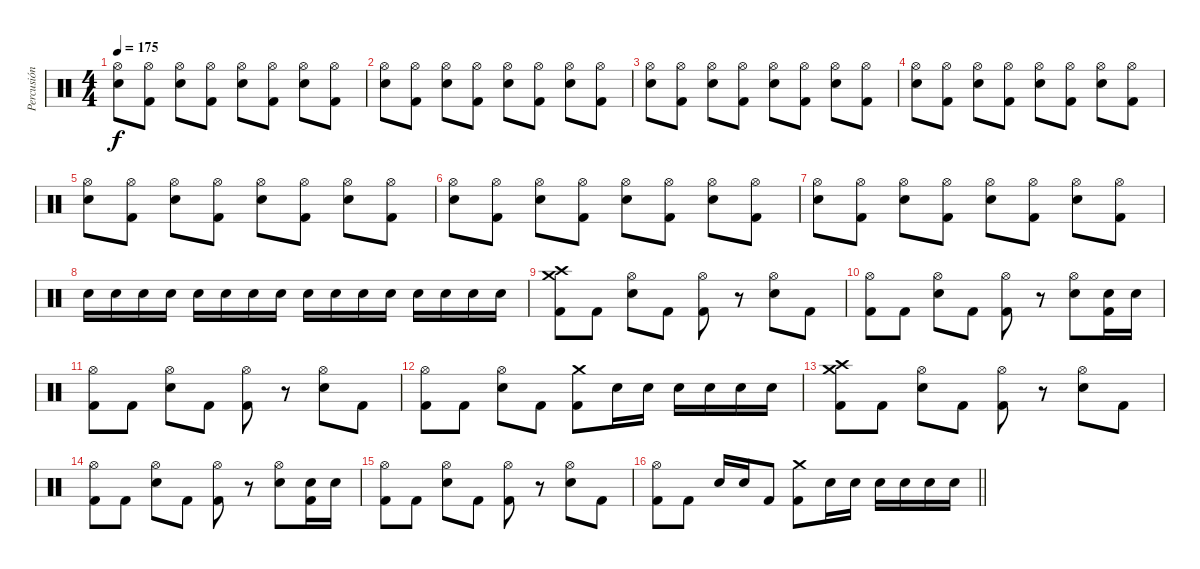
\track ("Percusión" "Percusión") {instrument percussion}
\staff {score}
\articulation defaults
\ts (4 4)
\tempo 175
\clef neutral
\ks c
("Hi-Hat (open)" "Electric Snare (hit)").8{dy f} ("Hi-Hat (open)" "Kick (hit) 2").8 ("Hi-Hat (open)" "Electric Snare (hit)").8 ("Hi-Hat (open)" "Kick (hit) 2").8 ("Hi-Hat (open)" "Electric Snare (hit)").8 ("Hi-Hat (open)" "Kick (hit) 2").8 ("Hi-Hat (open)" "Electric Snare (hit)").8 ("Hi-Hat (open)" "Kick (hit) 2").8 |
("Hi-Hat (open)" "Electric Snare (hit)").8 ("Hi-Hat (open)" "Kick (hit) 2").8 ("Hi-Hat (open)" "Electric Snare (hit)").8 ("Hi-Hat (open)" "Kick (hit) 2").8 ("Hi-Hat (open)" "Electric Snare (hit)").8 ("Hi-Hat (open)" "Kick (hit) 2").8 ("Hi-Hat (open)" "Electric Snare (hit)").8 ("Hi-Hat (open)" "Kick (hit) 2").8 |
("Hi-Hat (open)" "Electric Snare (hit)").8 ("Hi-Hat (open)" "Kick (hit) 2").8 ("Hi-Hat (open)" "Electric Snare (hit)").8 ("Hi-Hat (open)" "Kick (hit) 2").8 ("Hi-Hat (open)" "Electric Snare (hit)").8 ("Hi-Hat (open)" "Kick (hit) 2").8 ("Hi-Hat (open)" "Electric Snare (hit)").8 ("Hi-Hat (open)" "Kick (hit) 2").8 |
("Hi-Hat (open)" "Electric Snare (hit)").8 ("Hi-Hat (open)" "Kick (hit) 2").8 ("Hi-Hat (open)" "Electric Snare (hit)").8 ("Hi-Hat (open)" "Kick (hit) 2").8 ("Hi-Hat (open)" "Electric Snare (hit)").8 ("Hi-Hat (open)" "Kick (hit) 2").8 ("Hi-Hat (open)" "Electric Snare (hit)").8 ("Hi-Hat (open)" "Kick (hit) 2").8 |
("Hi-Hat (open)" "Electric Snare (hit)").8 ("Hi-Hat (open)" "Kick (hit) 2").8 ("Hi-Hat (open)" "Electric Snare (hit)").8 ("Hi-Hat (open)" "Kick (hit) 2").8 ("Hi-Hat (open)" "Electric Snare (hit)").8 ("Hi-Hat (open)" "Kick (hit) 2").8 ("Hi-Hat (open)" "Electric Snare (hit)").8 ("Hi-Hat (open)" "Kick (hit) 2").8 |
("Hi-Hat (open)" "Electric Snare (hit)").8 ("Hi-Hat (open)" "Kick (hit) 2").8 ("Hi-Hat (open)" "Electric Snare (hit)").8 ("Hi-Hat (open)" "Kick (hit) 2").8 ("Hi-Hat (open)" "Electric Snare (hit)").8 ("Hi-Hat (open)" "Kick (hit) 2").8 ("Hi-Hat (open)" "Electric Snare (hit)").8 ("Hi-Hat (open)" "Kick (hit) 2").8 |
("Hi-Hat (open)" "Electric Snare (hit)").8 ("Hi-Hat (open)" "Kick (hit) 2").8 ("Hi-Hat (open)" "Electric Snare (hit)").8 ("Hi-Hat (open)" "Kick (hit) 2").8 ("Hi-Hat (open)" "Electric Snare (hit)").8 ("Hi-Hat (open)" "Kick (hit) 2").8 ("Hi-Hat (open)" "Electric Snare (hit)").8 ("Hi-Hat (open)" "Kick (hit) 2").8 |
"Electric Snare (hit)".16 "Electric Snare (hit)".16 "Electric Snare (hit)".16 "Electric Snare (hit)".16 "Electric Snare (hit)".16 "Electric Snare (hit)".16 "Electric Snare (hit)".16 "Electric Snare (hit)".16 "Electric Snare (hit)".16 "Electric Snare (hit)".16 "Electric Snare (hit)".16 "Electric Snare (hit)".16 "Electric Snare (hit)".16 "Electric Snare (hit)".16 "Electric Snare (hit)".16 "Electric Snare (hit)".16 |
("Crash medium (hit)" "Crash high (hit)" "Kick (hit) 2").8 "Kick (hit) 2".8 ("Hi-Hat (open)" "Electric Snare (hit)").8 "Kick (hit) 2".8 ("Hi-Hat (open)" "Kick (hit) 2").8 r.8 ("Hi-Hat (open)" "Electric Snare (hit)").8 "Kick (hit) 2".8 |
("Hi-Hat (open)" "Kick (hit) 2").8 "Kick (hit) 2".8 ("Hi-Hat (open)" "Electric Snare (hit)").8 "Kick (hit) 2".8 ("Hi-Hat (open)" "Kick (hit) 2").8 r.8 ("Hi-Hat (open)" "Electric Snare (hit)").8 ("Electric Snare (hit)" "Kick (hit) 2").16 "Electric Snare (hit)".16 |
("Hi-Hat (open)" "Kick (hit) 2").8 "Kick (hit) 2".8 ("Hi-Hat (open)" "Electric Snare (hit)").8 "Kick (hit) 2".8 ("Hi-Hat (open)" "Kick (hit) 2").8 r.8 ("Hi-Hat (open)" "Electric Snare (hit)").8 "Kick (hit) 2".8 |
("Hi-Hat (open)" "Kick (hit) 2").8 "Kick (hit) 2".8 ("Hi-Hat (open)" "Electric Snare (hit)").8 "Kick (hit) 2".8 ("Crash medium (hit)" "Kick (hit) 2").8 "Electric Snare (hit)".16 "Electric Snare (hit)".16 "Electric Snare (hit)".16 "Electric Snare (hit)".16 "Electric Snare (hit)".16 "Electric Snare (hit)".16 |
("Crash medium (hit)" "Crash high (hit)" "Kick (hit) 2").8 "Kick (hit) 2".8 ("Hi-Hat (open)" "Electric Snare (hit)").8 "Kick (hit) 2".8 ("Hi-Hat (open)" "Kick (hit) 2").8 r.8 ("Hi-Hat (open)" "Electric Snare (hit)").8 "Kick (hit) 2".8 |
("Hi-Hat (open)" "Kick (hit) 2").8 "Kick (hit) 2".8 ("Hi-Hat (open)" "Electric Snare (hit)").8 "Kick (hit) 2".8 ("Hi-Hat (open)" "Kick (hit) 2").8 r.8 ("Hi-Hat (open)" "Electric Snare (hit)").8 ("Electric Snare (hit)" "Kick (hit) 2").16 "Electric Snare (hit)".16 |
("Hi-Hat (open)" "Kick (hit) 2").8 "Kick (hit) 2".8 ("Hi-Hat (open)" "Electric Snare (hit)").8 "Kick (hit) 2".8 ("Hi-Hat (open)" "Kick (hit) 2").8 r.8 ("Hi-Hat (open)" "Electric Snare (hit)").8 "Kick (hit) 2".8 |
\barLineRight lightlight
("Hi-Hat (open)" "Kick (hit) 2").8 "Kick (hit) 2".8 "Electric Snare (hit)".16 "Electric Snare (hit)".16 "Kick (hit) 2".8 ("Crash medium (hit)" "Kick (hit) 2").8 "Electric Snare (hit)".16 "Electric Snare (hit)".16 "Electric Snare (hit)".16 "Electric Snare (hit)".16 "Electric Snare (hit)".16 "Electric Snare (hit)".16
